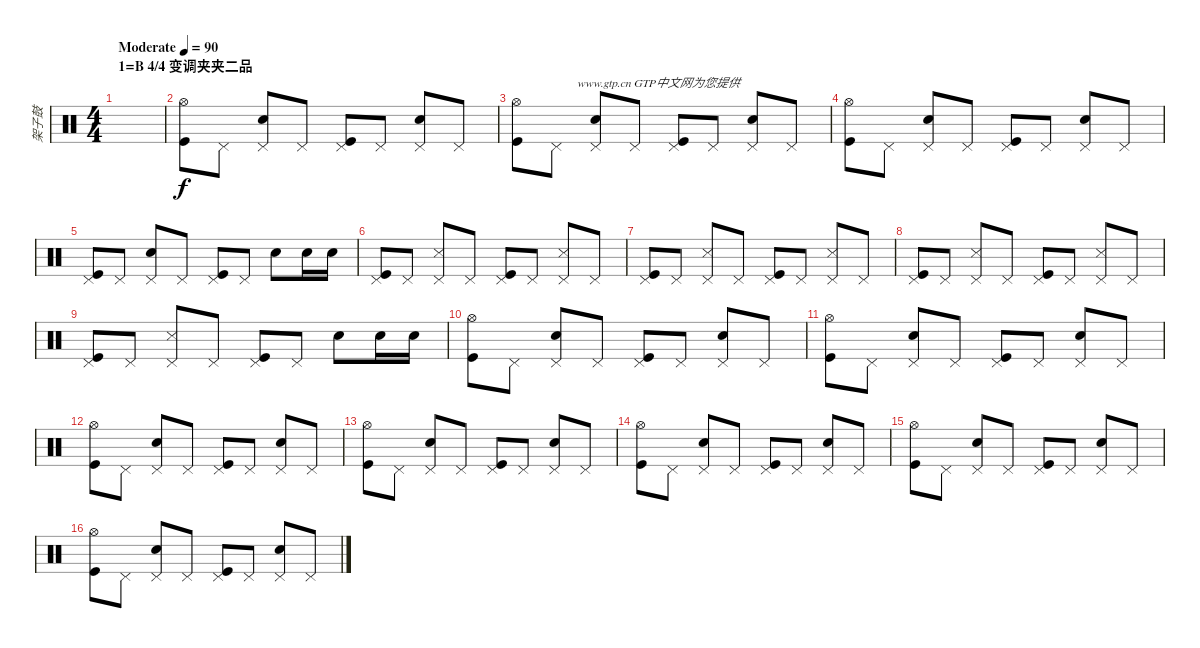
\track ("架子鼓" "架子鼓") {instrument percussion}
\staff {score}
\articulation defaults
\ts (4 4)
\section ("" "1=B 4/4 变调夹夹二品")
\tempo (90 "Moderate")
\clef neutral
\ks c
|
("Hi-Hat (open)" "Kick (hit)").8 "Pedal Hi-Hat (hit)".8 ("Snare (hit) 2" "Pedal Hi-Hat (hit)").8 "Pedal Hi-Hat (hit)".8 ("Pedal Hi-Hat (hit)" "Kick (hit)").8 "Pedal Hi-Hat (hit)".8 ("Snare (hit) 2" "Pedal Hi-Hat (hit)").8 "Pedal Hi-Hat (hit)".8 |
("Hi-Hat (open)" "Kick (hit)").8{txt "                    www.gtp.cn GTP中文网为您提供"} "Pedal Hi-Hat (hit)".8 ("Snare (hit) 2" "Pedal Hi-Hat (hit)").8 "Pedal Hi-Hat (hit)".8 ("Pedal Hi-Hat (hit)" "Kick (hit)").8 "Pedal Hi-Hat (hit)".8 ("Snare (hit) 2" "Pedal Hi-Hat (hit)").8 "Pedal Hi-Hat (hit)".8 |
("Hi-Hat (open)" "Kick (hit)").8 "Pedal Hi-Hat (hit)".8 ("Snare (hit) 2" "Pedal Hi-Hat (hit)").8 "Pedal Hi-Hat (hit)".8 ("Pedal Hi-Hat (hit)" "Kick (hit)").8 "Pedal Hi-Hat (hit)".8 ("Snare (hit) 2" "Pedal Hi-Hat (hit)").8 "Pedal Hi-Hat (hit)".8 |
("Pedal Hi-Hat (hit)" "Kick (hit)").8 "Pedal Hi-Hat (hit)".8 ("Snare (hit) 2" "Pedal Hi-Hat (hit)").8 "Pedal Hi-Hat (hit)".8 ("Pedal Hi-Hat (hit)" "Kick (hit)").8 "Pedal Hi-Hat (hit)".8 "Snare (hit) 2".8 "Snare (hit) 2".16 "Snare (hit) 2".16 |
("Pedal Hi-Hat (hit)" "Kick (hit)").8 "Pedal Hi-Hat (hit)".8 ("Snare (side stick) 3" "Pedal Hi-Hat (hit)").8 "Pedal Hi-Hat (hit)".8 ("Pedal Hi-Hat (hit)" "Kick (hit)").8 "Pedal Hi-Hat (hit)".8 ("Snare (side stick) 3" "Pedal Hi-Hat (hit)").8 "Pedal Hi-Hat (hit)".8 |
("Pedal Hi-Hat (hit)" "Kick (hit)").8 "Pedal Hi-Hat (hit)".8 ("Snare (side stick) 3" "Pedal Hi-Hat (hit)").8 "Pedal Hi-Hat (hit)".8 ("Pedal Hi-Hat (hit)" "Kick (hit)").8 "Pedal Hi-Hat (hit)".8 ("Snare (side stick) 3" "Pedal Hi-Hat (hit)").8 "Pedal Hi-Hat (hit)".8 |
("Pedal Hi-Hat (hit)" "Kick (hit)").8 "Pedal Hi-Hat (hit)".8 ("Snare (side stick) 3" "Pedal Hi-Hat (hit)").8 "Pedal Hi-Hat (hit)".8 ("Pedal Hi-Hat (hit)" "Kick (hit)").8 "Pedal Hi-Hat (hit)".8 ("Snare (side stick) 3" "Pedal Hi-Hat (hit)").8 "Pedal Hi-Hat (hit)".8 |
("Pedal Hi-Hat (hit)" "Kick (hit)").8 "Pedal Hi-Hat (hit)".8 ("Snare (side stick) 3" "Pedal Hi-Hat (hit)").8 "Pedal Hi-Hat (hit)".8 ("Pedal Hi-Hat (hit)" "Kick (hit)").8 "Pedal Hi-Hat (hit)".8 "Snare (hit) 2".8 "Snare (hit) 2".16 "Snare (hit) 2".16 |
("Hi-Hat (open)" "Kick (hit)").8 "Pedal Hi-Hat (hit)".8 ("Snare (hit) 2" "Pedal Hi-Hat (hit)").8 "Pedal Hi-Hat (hit)".8 ("Pedal Hi-Hat (hit)" "Kick (hit)").8 "Pedal Hi-Hat (hit)".8 ("Snare (hit) 2" "Pedal Hi-Hat (hit)").8 "Pedal Hi-Hat (hit)".8 |
("Hi-Hat (open)" "Kick (hit)").8 "Pedal Hi-Hat (hit)".8 ("Snare (hit) 2" "Pedal Hi-Hat (hit)").8 "Pedal Hi-Hat (hit)".8 ("Pedal Hi-Hat (hit)" "Kick (hit)").8 "Pedal Hi-Hat (hit)".8 ("Snare (hit) 2" "Pedal Hi-Hat (hit)").8 "Pedal Hi-Hat (hit)".8 |
("Hi-Hat (open)" "Kick (hit)").8 "Pedal Hi-Hat (hit)".8 ("Snare (hit) 2" "Pedal Hi-Hat (hit)").8 "Pedal Hi-Hat (hit)".8 ("Pedal Hi-Hat (hit)" "Kick (hit)").8 "Pedal Hi-Hat (hit)".8 ("Snare (hit) 2" "Pedal Hi-Hat (hit)").8 "Pedal Hi-Hat (hit)".8 |
("Hi-Hat (open)" "Kick (hit)").8 "Pedal Hi-Hat (hit)".8 ("Snare (hit) 2" "Pedal Hi-Hat (hit)").8 "Pedal Hi-Hat (hit)".8 ("Pedal Hi-Hat (hit)" "Kick (hit)").8 "Pedal Hi-Hat (hit)".8 ("Snare (hit) 2" "Pedal Hi-Hat (hit)").8 "Pedal Hi-Hat (hit)".8 |
("Hi-Hat (open)" "Kick (hit)").8 "Pedal Hi-Hat (hit)".8 ("Snare (hit) 2" "Pedal Hi-Hat (hit)").8 "Pedal Hi-Hat (hit)".8 ("Pedal Hi-Hat (hit)" "Kick (hit)").8 "Pedal Hi-Hat (hit)".8 ("Snare (hit) 2" "Pedal Hi-Hat (hit)").8 "Pedal Hi-Hat (hit)".8 |
("Hi-Hat (open)" "Kick (hit)").8 "Pedal Hi-Hat (hit)".8 ("Snare (hit) 2" "Pedal Hi-Hat (hit)").8 "Pedal Hi-Hat (hit)".8 ("Pedal Hi-Hat (hit)" "Kick (hit)").8 "Pedal Hi-Hat (hit)".8 ("Snare (hit) 2" "Pedal Hi-Hat (hit)").8 "Pedal Hi-Hat (hit)".8 |
("Hi-Hat (open)" "Kick (hit)").8 "Pedal Hi-Hat (hit)".8 ("Snare (hit) 2" "Pedal Hi-Hat (hit)").8 "Pedal Hi-Hat (hit)".8 ("Pedal Hi-Hat (hit)" "Kick (hit)").8 "Pedal Hi-Hat (hit)".8 ("Snare (hit) 2" "Pedal Hi-Hat (hit)").8 "Pedal Hi-Hat (hit)".8
